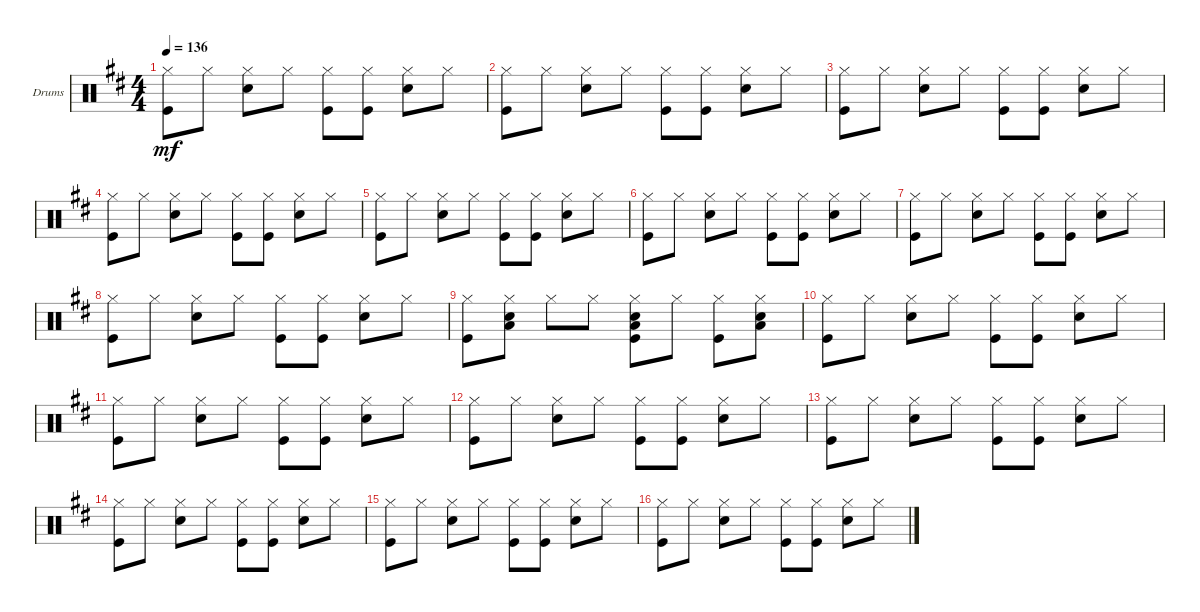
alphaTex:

\defaultSystemsLayout 4
\bracketExtendMode groupsimilarinstruments
\firstSystemTrackNameOrientation horizontal
\otherSystemsTrackNameOrientation horizontal
\track ("Greg Bissonette Drums" "Drums") {instrument percussion}
\staff {score}
\articulation defaults
\ts (4 4)
\tempo 136
\clef neutral
\scale
0.333333
\ks d
("Kick (hit)" "Hi-Hat (closed)").8{dy mf} "Hi-Hat (closed)".8 ("Snare (hit) 2" "Hi-Hat (closed)").8 "Hi-Hat (closed)".8 ("Kick (hit)" "Hi-Hat (closed)").8 ("Kick (hit)" "Hi-Hat (closed)").8 ("Snare (hit) 2" "Hi-Hat (closed)").8 "Hi-Hat (closed)".8 |
\scale
0.333333 ("Kick (hit)" "Hi-Hat (closed)").8 "Hi-Hat (closed)".8 ("Snare (hit) 2" "Hi-Hat (closed)").8 "Hi-Hat (closed)".8 ("Kick (hit)" "Hi-Hat (closed)").8 ("Kick (hit)" "Hi-Hat (closed)").8 ("Snare (hit) 2" "Hi-Hat (closed)").8 "Hi-Hat (closed)".8 |
\scale
0.333333 ("Kick (hit)" "Hi-Hat (closed)").8 "Hi-Hat (closed)".8 ("Snare (hit) 2" "Hi-Hat (closed)").8 "Hi-Hat (closed)".8 ("Kick (hit)" "Hi-Hat (closed)").8 ("Kick (hit)" "Hi-Hat (closed)").8 ("Snare (hit) 2" "Hi-Hat (closed)").8 "Hi-Hat (closed)".8 |
\scale
0.333333 ("Kick (hit)" "Hi-Hat (closed)").8 "Hi-Hat (closed)".8 ("Snare (hit) 2" "Hi-Hat (closed)").8 "Hi-Hat (closed)".8 ("Kick (hit)" "Hi-Hat (closed)").8 ("Kick (hit)" "Hi-Hat (closed)").8 ("Snare (hit) 2" "Hi-Hat (closed)").8 "Hi-Hat (closed)".8 |
\scale
0.333333 ("Kick (hit)" "Hi-Hat (closed)").8 "Hi-Hat (closed)".8 ("Snare (hit) 2" "Hi-Hat (closed)").8 "Hi-Hat (closed)".8 ("Kick (hit)" "Hi-Hat (closed)").8 ("Kick (hit)" "Hi-Hat (closed)").8 ("Snare (hit) 2" "Hi-Hat (closed)").8 "Hi-Hat (closed)".8 |
\scale
0.333333 ("Kick (hit)" "Hi-Hat (closed)").8 "Hi-Hat (closed)".8 ("Snare (hit) 2" "Hi-Hat (closed)").8 "Hi-Hat (closed)".8 ("Kick (hit)" "Hi-Hat (closed)").8 ("Kick (hit)" "Hi-Hat (closed)").8 ("Snare (hit) 2" "Hi-Hat (closed)").8 "Hi-Hat (closed)".8 |
\scale
0.333333 ("Kick (hit)" "Hi-Hat (closed)").8 "Hi-Hat (closed)".8 ("Snare (hit) 2" "Hi-Hat (closed)").8 "Hi-Hat (closed)".8 ("Kick (hit)" "Hi-Hat (closed)").8 ("Kick (hit)" "Hi-Hat (closed)").8 ("Snare (hit) 2" "Hi-Hat (closed)").8 "Hi-Hat (closed)".8 |
\scale
0.333333 ("Kick (hit)" "Hi-Hat (closed)").8 "Hi-Hat (closed)".8 ("Snare (hit) 2" "Hi-Hat (closed)").8 "Hi-Hat (closed)".8 ("Kick (hit)" "Hi-Hat (closed)").8 ("Kick (hit)" "Hi-Hat (closed)").8 ("Snare (hit) 2" "Hi-Hat (closed)").8 "Hi-Hat (closed)".8 |
\scale
0.333333 ("Kick (hit)" "Hi-Hat (closed)").8 ("Snare (hit) 2" "Hi-Hat (closed)" "Low Tom (hit)").8 "Hi-Hat (closed)".8 "Hi-Hat (closed)".8 ("Kick (hit)" "Snare (hit) 2" "Hi-Hat (closed)" "Low Tom (hit)").8 "Hi-Hat (closed)".8 ("Kick (hit)" "Hi-Hat (closed)").8 ("Snare (hit) 2" "Hi-Hat (closed)" "Low Tom (hit)").8 |
\scale
0.333333 ("Kick (hit)" "Hi-Hat (closed)").8 "Hi-Hat (closed)".8 ("Snare (hit) 2" "Hi-Hat (closed)").8 "Hi-Hat (closed)".8 ("Kick (hit)" "Hi-Hat (closed)").8 ("Kick (hit)" "Hi-Hat (closed)").8 ("Snare (hit) 2" "Hi-Hat (closed)").8 "Hi-Hat (closed)".8 |
\scale
0.333333 ("Kick (hit)" "Hi-Hat (closed)").8 "Hi-Hat (closed)".8 ("Snare (hit) 2" "Hi-Hat (closed)").8 "Hi-Hat (closed)".8 ("Kick (hit)" "Hi-Hat (closed)").8 ("Kick (hit)" "Hi-Hat (closed)").8 ("Snare (hit) 2" "Hi-Hat (closed)").8 "Hi-Hat (closed)".8 |
\scale
0.333333 ("Kick (hit)" "Hi-Hat (closed)").8 "Hi-Hat (closed)".8 ("Snare (hit) 2" "Hi-Hat (closed)").8 "Hi-Hat (closed)".8 ("Kick (hit)" "Hi-Hat (closed)").8 ("Kick (hit)" "Hi-Hat (closed)").8 ("Snare (hit) 2" "Hi-Hat (closed)").8 "Hi-Hat (closed)".8 |
\scale
0.333333 ("Kick (hit)" "Hi-Hat (closed)").8 "Hi-Hat (closed)".8 ("Snare (hit) 2" "Hi-Hat (closed)").8 "Hi-Hat (closed)".8 ("Kick (hit)" "Hi-Hat (closed)").8 ("Kick (hit)" "Hi-Hat (closed)").8 ("Snare (hit) 2" "Hi-Hat (closed)").8 "Hi-Hat (closed)".8 |
\scale
0.333333 ("Kick (hit)" "Hi-Hat (closed)").8 "Hi-Hat (closed)".8 ("Snare (hit) 2" "Hi-Hat (closed)").8 "Hi-Hat (closed)".8 ("Kick (hit)" "Hi-Hat (closed)").8 ("Kick (hit)" "Hi-Hat (closed)").8 ("Snare (hit) 2" "Hi-Hat (closed)").8 "Hi-Hat (closed)".8 |
\scale
0.333333 ("Kick (hit)" "Hi-Hat (closed)").8 "Hi-Hat (closed)".8 ("Snare (hit) 2" "Hi-Hat (closed)").8 "Hi-Hat (closed)".8 ("Kick (hit)" "Hi-Hat (closed)").8 ("Kick (hit)" "Hi-Hat (closed)").8 ("Snare (hit) 2" "Hi-Hat (closed)").8 "Hi-Hat (closed)".8 |
\scale
0.333333 ("Kick (hit)" "Hi-Hat (closed)").8 "Hi-Hat (closed)".8 ("Snare (hit) 2" "Hi-Hat (closed)").8 "Hi-Hat (closed)".8 ("Kick (hit)" "Hi-Hat (closed)").8 ("Kick (hit)" "Hi-Hat (closed)").8 ("Snare (hit) 2" "Hi-Hat (closed)").8 "Hi-Hat (closed)".8
